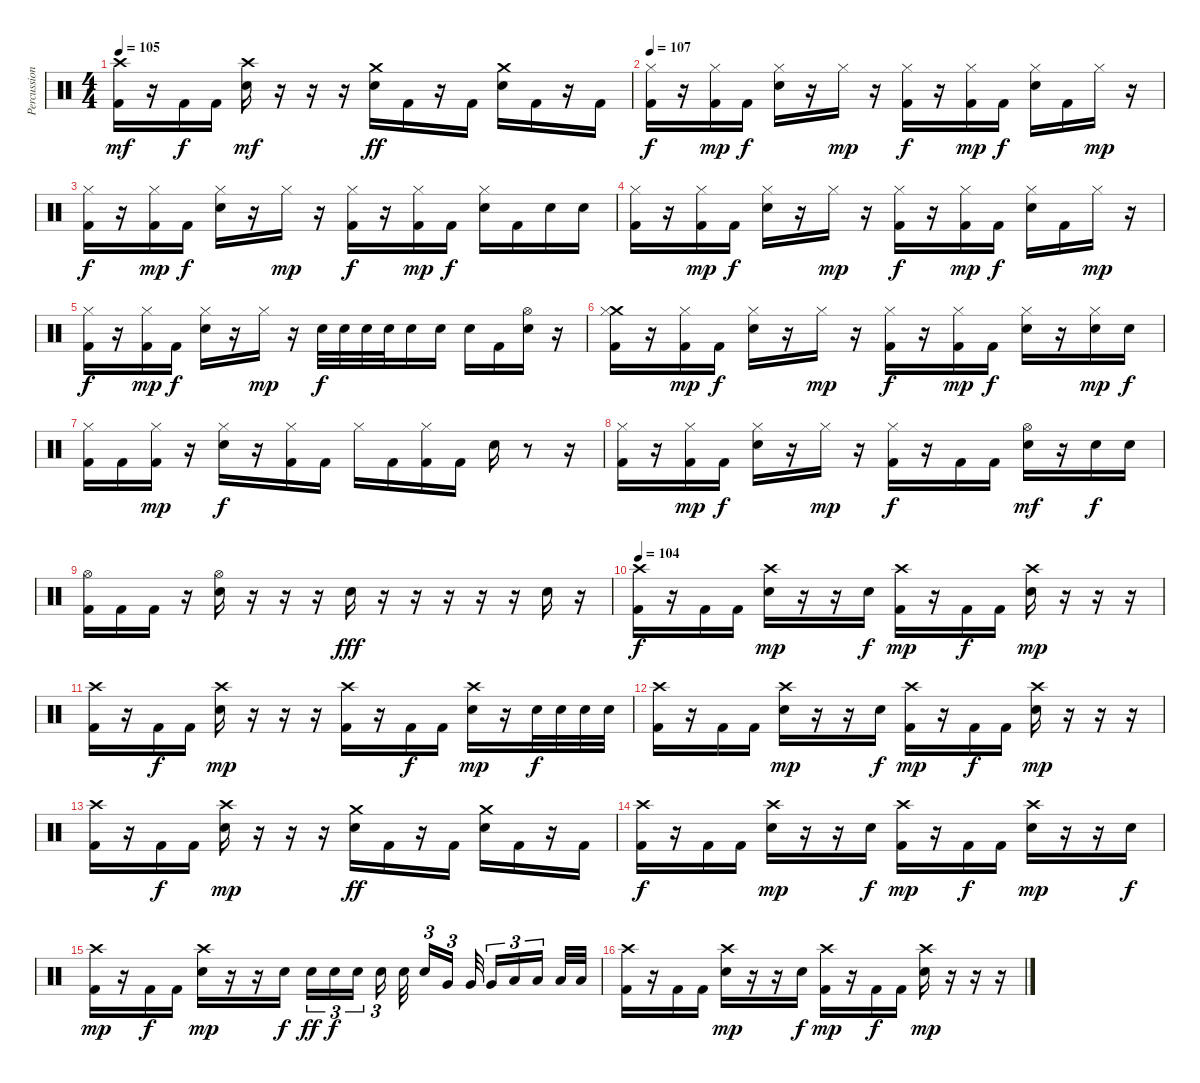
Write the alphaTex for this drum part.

\track ("Percussion" "Percussion") {instrument percussion}
\staff {score}
\articulation defaults
\ts (4 4)
\tempo 105
\clef neutral
\ks c
("Kick (hit) 2" "Crash high (hit)").16{dy mf} r.16 "Kick (hit) 2".16{dy f} "Kick (hit) 2".16 ("Electric Snare (hit)" "Crash high (hit)").16{dy mf} r.16 r.16 r.16 ("Electric Snare (hit)" "Crash medium (hit)").16{dy ff} "Kick (hit) 2".16 r.16 "Kick (hit) 2".16 ("Electric Snare (hit)" "Crash medium (hit)").16 "Kick (hit) 2".16 r.16 "Kick (hit) 2".16 |
\tempo 107
("Kick (hit) 2" "Hi-Hat (closed)").16{dy f} r.16 ("Kick (hit) 2" "Hi-Hat (closed)").16{dy mp} "Kick (hit) 2".16{dy f} ("Electric Snare (hit)" "Hi-Hat (closed)").16 r.16 "Hi-Hat (closed)".16{dy mp} r.16 ("Kick (hit) 2" "Hi-Hat (closed)").16{dy f} r.16 ("Kick (hit) 2" "Hi-Hat (closed)").16{dy mp} "Kick (hit) 2".16{dy f} ("Electric Snare (hit)" "Hi-Hat (closed)").16 "Kick (hit) 2".16 "Hi-Hat (closed)".16{dy mp} r.16 |
("Kick (hit) 2" "Hi-Hat (closed)").16{dy f} r.16 ("Kick (hit) 2" "Hi-Hat (closed)").16{dy mp} "Kick (hit) 2".16{dy f} ("Electric Snare (hit)" "Hi-Hat (closed)").16 r.16 "Hi-Hat (closed)".16{dy mp} r.16 ("Kick (hit) 2" "Hi-Hat (closed)").16{dy f} r.16 ("Kick (hit) 2" "Hi-Hat (closed)").16{dy mp} "Kick (hit) 2".16{dy f} ("Electric Snare (hit)" "Hi-Hat (closed)").16 "Kick (hit) 2".16 "Electric Snare (hit)".16 "Electric Snare (hit)".16 |
("Kick (hit) 2" "Hi-Hat (closed)").16 r.16 ("Kick (hit) 2" "Hi-Hat (closed)").16{dy mp} "Kick (hit) 2".16{dy f} ("Electric Snare (hit)" "Hi-Hat (closed)").16 r.16 "Hi-Hat (closed)".16{dy mp} r.16 ("Kick (hit) 2" "Hi-Hat (closed)").16{dy f} r.16 ("Kick (hit) 2" "Hi-Hat (closed)").16{dy mp} "Kick (hit) 2".16{dy f} ("Electric Snare (hit)" "Hi-Hat (closed)").16 "Kick (hit) 2".16 "Hi-Hat (closed)".16{dy mp} r.16 |
("Kick (hit) 2" "Hi-Hat (closed)").16{dy f} r.16 ("Kick (hit) 2" "Hi-Hat (closed)").16{dy mp} "Kick (hit) 2".16{dy f} ("Electric Snare (hit)" "Hi-Hat (closed)").16 r.16 "Hi-Hat (closed)".16{dy mp} r.16 "Electric Snare (hit)".32{dy f} "Electric Snare (hit)".32 "Electric Snare (hit)".32 "Electric Snare (hit)".32 "Electric Snare (hit)".16 "Electric Snare (hit)".16 "Electric Snare (hit)".16 "Kick (hit) 2".16 ("Electric Snare (hit)" "Hi-Hat (open)").16 r.16 |
("Crash medium (hit)" "Kick (hit) 2" "Hi-Hat (closed)").16 r.16 ("Kick (hit) 2" "Hi-Hat (closed)").16{dy mp} "Kick (hit) 2".16{dy f} ("Electric Snare (hit)" "Hi-Hat (closed)").16 r.16 "Hi-Hat (closed)".16{dy mp} r.16 ("Kick (hit) 2" "Hi-Hat (closed)").16{dy f} r.16 ("Kick (hit) 2" "Hi-Hat (closed)").16{dy mp} "Kick (hit) 2".16{dy f} ("Electric Snare (hit)" "Hi-Hat (closed)").16 r.16 ("Electric Snare (hit)" "Hi-Hat (closed)").16{dy mp} "Electric Snare (hit)".16{dy f} |
("Kick (hit) 2" "Hi-Hat (closed)").16 "Kick (hit) 2".16 ("Kick (hit) 2" "Hi-Hat (closed)").16{dy mp} r.16 ("Electric Snare (hit)" "Hi-Hat (closed)").16{dy f} r.16 ("Kick (hit) 2" "Hi-Hat (closed)").16 "Kick (hit) 2".16 "Hi-Hat (closed)".16 "Kick (hit) 2".16 ("Kick (hit) 2" "Hi-Hat (closed)").16 "Kick (hit) 2".16 "Electric Snare (hit)".16 r.8 r.16 |
("Kick (hit) 2" "Hi-Hat (closed)").16 r.16 ("Kick (hit) 2" "Hi-Hat (closed)").16{dy mp} "Kick (hit) 2".16{dy f} ("Electric Snare (hit)" "Hi-Hat (closed)").16 r.16 "Hi-Hat (closed)".16{dy mp} r.16 ("Kick (hit) 2" "Hi-Hat (closed)").16{dy f} r.16 "Kick (hit) 2".16 "Kick (hit) 2".16 ("Electric Snare (hit)" "Hi-Hat (open)").16{dy mf} r.16 "Electric Snare (hit)".16{dy f} "Electric Snare (hit)".16 |
("Kick (hit) 2" "Hi-Hat (open)").16 "Kick (hit) 2".16 "Kick (hit) 2".16 r.16 ("Electric Snare (hit)" "Hi-Hat (open)").16 r.16 r.16 r.16 "Electric Snare (hit)".16{dy fff} r.16 r.16 r.16 r.16 r.16 "Electric Snare (hit)".16 r.16 |
\tempo 104
("Kick (hit) 2" "Crash high (hit)").16{dy f} r.16 "Kick (hit) 2".16 "Kick (hit) 2".16 ("Electric Snare (hit)" "Crash high (hit)").16{dy mp} r.16 r.16 "Electric Snare (hit)".16{dy f} ("Kick (hit) 2" "Crash high (hit)").16{dy mp} r.16 "Kick (hit) 2".16{dy f} "Kick (hit) 2".16 ("Electric Snare (hit)" "Crash high (hit)").16{dy mp} r.16 r.16 r.16 |
("Kick (hit) 2" "Crash high (hit)").16 r.16 "Kick (hit) 2".16{dy f} "Kick (hit) 2".16 ("Electric Snare (hit)" "Crash high (hit)").16{dy mp} r.16 r.16 r.16 ("Kick (hit) 2" "Crash high (hit)").16 r.16 "Kick (hit) 2".16{dy f} "Kick (hit) 2".16 ("Electric Snare (hit)" "Crash high (hit)").16{dy mp} r.16 "Electric Snare (hit)".32{dy f} "Electric Snare (hit)".32 "Electric Snare (hit)".32 "Electric Snare (hit)".32 |
("Kick (hit) 2" "Crash high (hit)").16 r.16 "Kick (hit) 2".16 "Kick (hit) 2".16 ("Electric Snare (hit)" "Crash high (hit)").16{dy mp} r.16 r.16 "Electric Snare (hit)".16{dy f} ("Kick (hit) 2" "Crash high (hit)").16{dy mp} r.16 "Kick (hit) 2".16{dy f} "Kick (hit) 2".16 ("Electric Snare (hit)" "Crash high (hit)").16{dy mp} r.16 r.16 r.16 |
("Kick (hit) 2" "Crash high (hit)").16 r.16 "Kick (hit) 2".16{dy f} "Kick (hit) 2".16 ("Electric Snare (hit)" "Crash high (hit)").16{dy mp} r.16 r.16 r.16 ("Electric Snare (hit)" "Crash medium (hit)").16{dy ff} "Kick (hit) 2".16 r.16 "Kick (hit) 2".16 ("Electric Snare (hit)" "Crash medium (hit)").16 "Kick (hit) 2".16 r.16 "Kick (hit) 2".16 |
("Kick (hit) 2" "Crash high (hit)").16{dy f} r.16 "Kick (hit) 2".16 "Kick (hit) 2".16 ("Electric Snare (hit)" "Crash high (hit)").16{dy mp} r.16 r.16 "Electric Snare (hit)".16{dy f} ("Kick (hit) 2" "Crash high (hit)").16{dy mp} r.16 "Kick (hit) 2".16{dy f} "Kick (hit) 2".16 ("Electric Snare (hit)" "Crash high (hit)").16{dy mp} r.16 r.16 "Electric Snare (hit)".16{dy f} |
("Kick (hit) 2" "Crash high (hit)").16{dy mp} r.16 "Kick (hit) 2".16{dy f} "Kick (hit) 2".16 ("Electric Snare (hit)" "Crash high (hit)").16{dy mp} r.16 r.16 "Electric Snare (hit)".16{dy f} "Electric Snare (hit)".16{tu (3 2) dy ff} "Electric Snare (hit)".16{tu (3 2) dy f} "Electric Snare (hit)".16{tu (3 2)} "Electric Snare (hit)".16{tu (3 2)} "Electric Snare (hit)".32 "Electric Snare (hit)".16{tu (3 2)} "Very Low Tom (hit)".16{tu (3 2)} "Very Low Tom (hit)".32 "Very Low Tom (hit)".16{tu (3 2)} "Low Floor Tom (hit)".16{tu (3 2)} "Low Floor Tom (hit)".16{tu (3 2)} "Low Floor Tom (hit)".32 "Low Floor Tom (hit)".32 |
("Kick (hit) 2" "Crash high (hit)").16 r.16 "Kick (hit) 2".16 "Kick (hit) 2".16 ("Electric Snare (hit)" "Crash high (hit)").16{dy mp} r.16 r.16 "Electric Snare (hit)".16{dy f} ("Kick (hit) 2" "Crash high (hit)").16{dy mp} r.16 "Kick (hit) 2".16{dy f} "Kick (hit) 2".16 ("Electric Snare (hit)" "Crash high (hit)").16{dy mp} r.16 r.16 r.16
